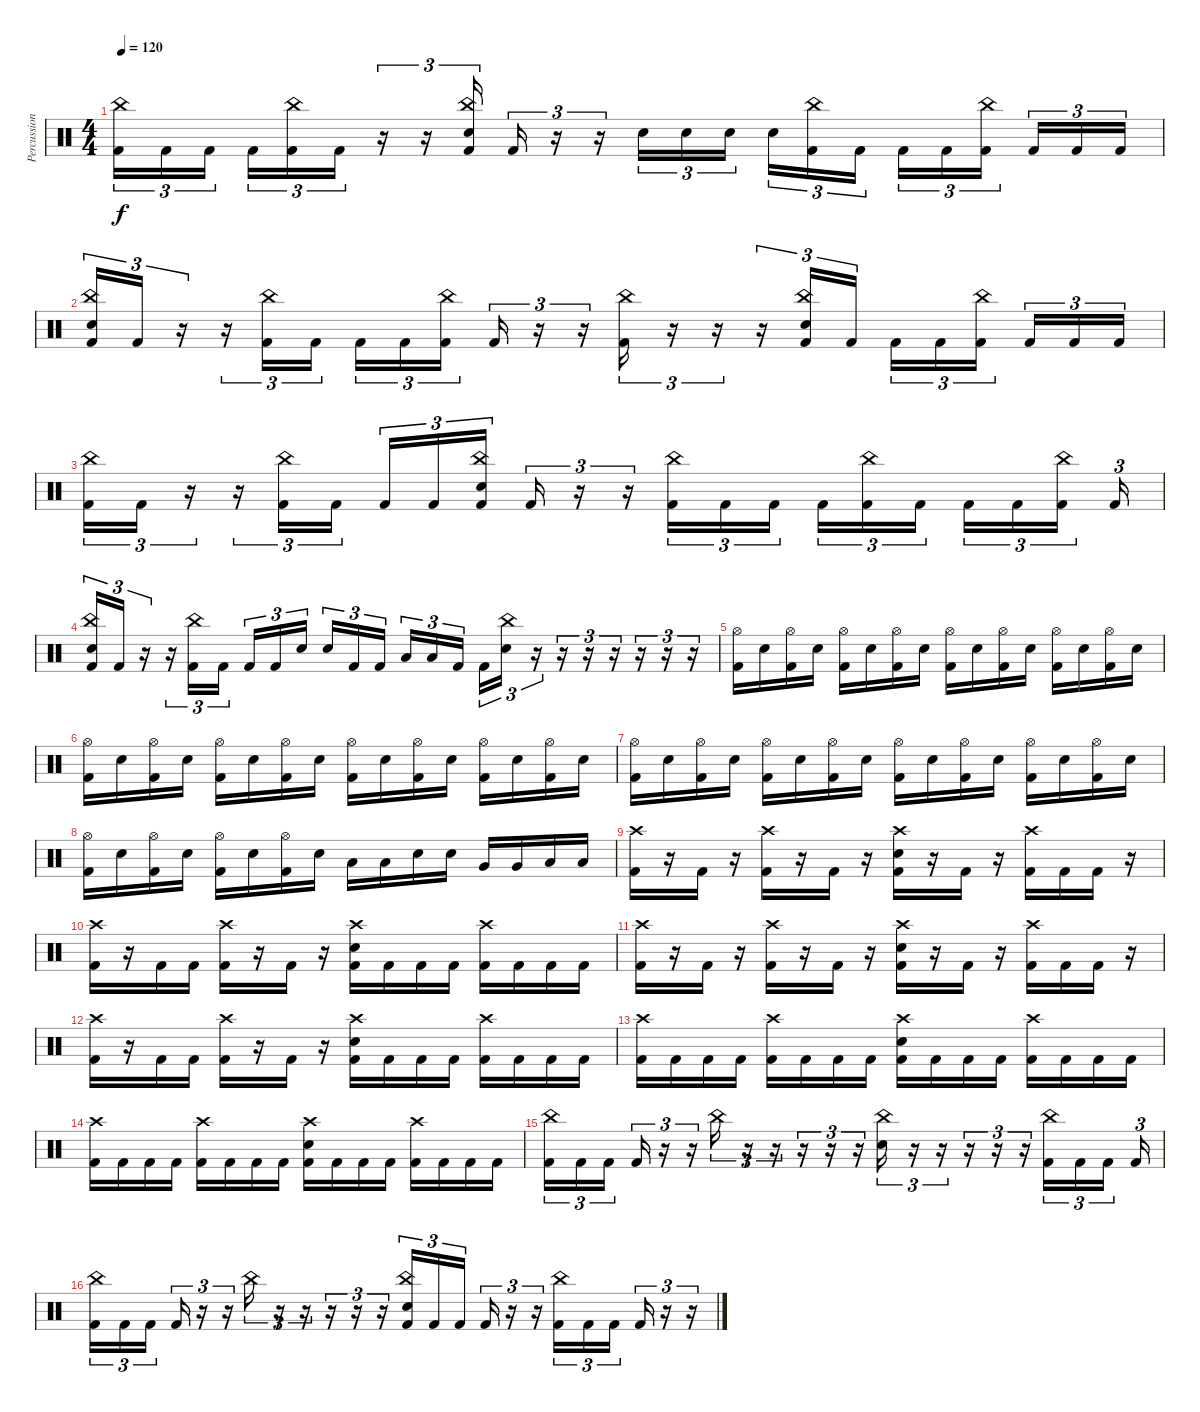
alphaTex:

\track ("Percussion" "Percussion") {instrument percussion}
\staff {score}
\articulation defaults
\ts (4 4)
\tempo 120
\clef neutral
\ks c
("Kick (hit) 2" "China (hit)").16{tu (3 2) dy f} "Kick (hit) 2".16{tu (3 2)} "Kick (hit) 2".16{tu (3 2)} "Kick (hit) 2".16{tu (3 2)} ("Kick (hit) 2" "China (hit)").16{tu (3 2)} "Kick (hit) 2".16{tu (3 2)} r.16{tu (3 2)} r.16{tu (3 2)} ("Kick (hit) 2" "Electric Snare (hit)" "China (hit)").16{tu (3 2)} "Kick (hit) 2".16{tu (3 2)} r.16{tu (3 2)} r.16{tu (3 2)} "Electric Snare (hit)".16{tu (3 2)} "Electric Snare (hit)".16{tu (3 2)} "Electric Snare (hit)".16{tu (3 2)} "Electric Snare (hit)".16{tu (3 2)} ("Kick (hit) 2" "China (hit)").16{tu (3 2)} "Kick (hit) 2".16{tu (3 2)} "Kick (hit) 2".16{tu (3 2)} "Kick (hit) 2".16{tu (3 2)} ("Kick (hit) 2" "China (hit)").16{tu (3 2)} "Kick (hit) 2".16{tu (3 2)} "Kick (hit) 2".16{tu (3 2)} "Kick (hit) 2".16{tu (3 2)} |
("Kick (hit) 2" "Electric Snare (hit)" "China (hit)").16{tu (3 2)} "Kick (hit) 2".16{tu (3 2)} r.16{tu (3 2)} r.16{tu (3 2)} ("Kick (hit) 2" "China (hit)").16{tu (3 2)} "Kick (hit) 2".16{tu (3 2)} "Kick (hit) 2".16{tu (3 2)} "Kick (hit) 2".16{tu (3 2)} ("Kick (hit) 2" "China (hit)").16{tu (3 2)} "Kick (hit) 2".16{tu (3 2)} r.16{tu (3 2)} r.16{tu (3 2)} ("Kick (hit) 2" "China (hit)").16{tu (3 2)} r.16{tu (3 2)} r.16{tu (3 2)} r.16{tu (3 2)} ("Kick (hit) 2" "Electric Snare (hit)" "China (hit)").16{tu (3 2)} "Kick (hit) 2".16{tu (3 2)} "Kick (hit) 2".16{tu (3 2)} "Kick (hit) 2".16{tu (3 2)} ("Kick (hit) 2" "China (hit)").16{tu (3 2)} "Kick (hit) 2".16{tu (3 2)} "Kick (hit) 2".16{tu (3 2)} "Kick (hit) 2".16{tu (3 2)} |
("Kick (hit) 2" "China (hit)").16{tu (3 2)} "Kick (hit) 2".16{tu (3 2)} r.16{tu (3 2)} r.16{tu (3 2)} ("Kick (hit) 2" "China (hit)").16{tu (3 2)} "Kick (hit) 2".16{tu (3 2)} "Kick (hit) 2".16{tu (3 2)} "Kick (hit) 2".16{tu (3 2)} ("Kick (hit) 2" "Electric Snare (hit)" "China (hit)").16{tu (3 2)} "Kick (hit) 2".16{tu (3 2)} r.16{tu (3 2)} r.16{tu (3 2)} ("Kick (hit) 2" "China (hit)").16{tu (3 2)} "Kick (hit) 2".16{tu (3 2)} "Kick (hit) 2".16{tu (3 2)} "Kick (hit) 2".16{tu (3 2)} ("Kick (hit) 2" "China (hit)").16{tu (3 2)} "Kick (hit) 2".16{tu (3 2)} "Kick (hit) 2".16{tu (3 2)} "Kick (hit) 2".16{tu (3 2)} ("Kick (hit) 2" "China (hit)").16{tu (3 2)} "Kick (hit) 2".16{tu (3 2)} |
("Kick (hit) 2" "Electric Snare (hit)" "China (hit)").16{tu (3 2)} "Kick (hit) 2".16{tu (3 2)} r.16{tu (3 2)} r.16{tu (3 2)} ("Kick (hit) 2" "China (hit)").16{tu (3 2)} "Kick (hit) 2".16{tu (3 2)} "Kick (hit) 2".16{tu (3 2)} "Kick (hit) 2".16{tu (3 2)} "Electric Snare (hit)".16{tu (3 2)} "Electric Snare (hit)".16{tu (3 2)} "Kick (hit) 2".16{tu (3 2)} "Kick (hit) 2".16{tu (3 2)} "Low Tom (hit)".16{tu (3 2)} "Low Tom (hit)".16{tu (3 2)} "Kick (hit) 2".16{tu (3 2)} "Kick (hit) 2".16{tu (3 2)} ("Electric Snare (hit)" "China (hit)").16{tu (3 2)} r.16{tu (3 2)} r.16{tu (3 2)} r.16{tu (3 2)} r.16{tu (3 2)} r.16{tu (3 2)} r.16{tu (3 2)} r.16{tu (3 2)} |
("Kick (hit) 2" "Hi-Hat (open)").16 "Electric Snare (hit)".16 ("Kick (hit) 2" "Hi-Hat (open)").16 "Electric Snare (hit)".16 ("Kick (hit) 2" "Hi-Hat (open)").16 "Electric Snare (hit)".16 ("Kick (hit) 2" "Hi-Hat (open)").16 "Electric Snare (hit)".16 ("Kick (hit) 2" "Hi-Hat (open)").16 "Electric Snare (hit)".16 ("Kick (hit) 2" "Hi-Hat (open)").16 "Electric Snare (hit)".16 ("Kick (hit) 2" "Hi-Hat (open)").16 "Electric Snare (hit)".16 ("Kick (hit) 2" "Hi-Hat (open)").16 "Electric Snare (hit)".16 |
("Kick (hit) 2" "Hi-Hat (open)").16 "Electric Snare (hit)".16 ("Kick (hit) 2" "Hi-Hat (open)").16 "Electric Snare (hit)".16 ("Kick (hit) 2" "Hi-Hat (open)").16 "Electric Snare (hit)".16 ("Kick (hit) 2" "Hi-Hat (open)").16 "Electric Snare (hit)".16 ("Kick (hit) 2" "Hi-Hat (open)").16 "Electric Snare (hit)".16 ("Kick (hit) 2" "Hi-Hat (open)").16 "Electric Snare (hit)".16 ("Kick (hit) 2" "Hi-Hat (open)").16 "Electric Snare (hit)".16 ("Kick (hit) 2" "Hi-Hat (open)").16 "Electric Snare (hit)".16 |
("Kick (hit) 2" "Hi-Hat (open)").16 "Electric Snare (hit)".16 ("Kick (hit) 2" "Hi-Hat (open)").16 "Electric Snare (hit)".16 ("Kick (hit) 2" "Hi-Hat (open)").16 "Electric Snare (hit)".16 ("Kick (hit) 2" "Hi-Hat (open)").16 "Electric Snare (hit)".16 ("Kick (hit) 2" "Hi-Hat (open)").16 "Electric Snare (hit)".16 ("Kick (hit) 2" "Hi-Hat (open)").16 "Electric Snare (hit)".16 ("Kick (hit) 2" "Hi-Hat (open)").16 "Electric Snare (hit)".16 ("Kick (hit) 2" "Hi-Hat (open)").16 "Electric Snare (hit)".16 |
("Kick (hit) 2" "Hi-Hat (open)").16 "Electric Snare (hit)".16 ("Kick (hit) 2" "Hi-Hat (open)").16 "Electric Snare (hit)".16 ("Kick (hit) 2" "Hi-Hat (open)").16 "Electric Snare (hit)".16 ("Kick (hit) 2" "Hi-Hat (open)").16 "Electric Snare (hit)".16 "Low Tom (hit)".16 "Low Tom (hit)".16 "Electric Snare (hit)".16 "Electric Snare (hit)".16 "Very Low Tom (hit)".16 "Very Low Tom (hit)".16 "Low Floor Tom (hit)".16 "Low Floor Tom (hit)".16 |
("Kick (hit) 2" "Crash high (hit)").16 r.16 "Kick (hit) 2".16 r.16 ("Kick (hit) 2" "Crash high (hit)").16 r.16 "Kick (hit) 2".16 r.16 ("Kick (hit) 2" "Electric Snare (hit)" "Crash high (hit)").16 r.16 "Kick (hit) 2".16 r.16 ("Kick (hit) 2" "Crash high (hit)").16 "Kick (hit) 2".16 "Kick (hit) 2".16 r.16 |
("Kick (hit) 2" "Crash high (hit)").16 r.16 "Kick (hit) 2".16 "Kick (hit) 2".16 ("Kick (hit) 2" "Crash high (hit)").16 r.16 "Kick (hit) 2".16 r.16 ("Kick (hit) 2" "Electric Snare (hit)" "Crash high (hit)").16 "Kick (hit) 2".16 "Kick (hit) 2".16 "Kick (hit) 2".16 ("Kick (hit) 2" "Crash high (hit)").16 "Kick (hit) 2".16 "Kick (hit) 2".16 "Kick (hit) 2".16 |
("Kick (hit) 2" "Crash high (hit)").16 r.16 "Kick (hit) 2".16 r.16 ("Kick (hit) 2" "Crash high (hit)").16 r.16 "Kick (hit) 2".16 r.16 ("Kick (hit) 2" "Electric Snare (hit)" "Crash high (hit)").16 r.16 "Kick (hit) 2".16 r.16 ("Kick (hit) 2" "Crash high (hit)").16 "Kick (hit) 2".16 "Kick (hit) 2".16 r.16 |
("Kick (hit) 2" "Crash high (hit)").16 r.16 "Kick (hit) 2".16 "Kick (hit) 2".16 ("Kick (hit) 2" "Crash high (hit)").16 r.16 "Kick (hit) 2".16 r.16 ("Kick (hit) 2" "Electric Snare (hit)" "Crash high (hit)").16 "Kick (hit) 2".16 "Kick (hit) 2".16 "Kick (hit) 2".16 ("Kick (hit) 2" "Crash high (hit)").16 "Kick (hit) 2".16 "Kick (hit) 2".16 "Kick (hit) 2".16 |
("Kick (hit) 2" "Crash high (hit)").16 "Kick (hit) 2".16 "Kick (hit) 2".16 "Kick (hit) 2".16 ("Kick (hit) 2" "Crash high (hit)").16 "Kick (hit) 2".16 "Kick (hit) 2".16 "Kick (hit) 2".16 ("Kick (hit) 2" "Crash high (hit)" "Electric Snare (hit)").16 "Kick (hit) 2".16 "Kick (hit) 2".16 "Kick (hit) 2".16 ("Kick (hit) 2" "Crash high (hit)").16 "Kick (hit) 2".16 "Kick (hit) 2".16 "Kick (hit) 2".16 |
("Kick (hit) 2" "Crash high (hit)").16 "Kick (hit) 2".16 "Kick (hit) 2".16 "Kick (hit) 2".16 ("Kick (hit) 2" "Crash high (hit)").16 "Kick (hit) 2".16 "Kick (hit) 2".16 "Kick (hit) 2".16 ("Kick (hit) 2" "Crash high (hit)" "Electric Snare (hit)").16 "Kick (hit) 2".16 "Kick (hit) 2".16 "Kick (hit) 2".16 ("Kick (hit) 2" "Crash high (hit)").16 "Kick (hit) 2".16 "Kick (hit) 2".16 "Kick (hit) 2".16 |
("Kick (hit) 2" "China (hit)").16{tu (3 2)} "Kick (hit) 2".16{tu (3 2)} "Kick (hit) 2".16{tu (3 2)} "Kick (hit) 2".16{tu (3 2)} r.16{tu (3 2)} r.16{tu (3 2)} "China (hit)".16{tu (3 2)} r.16{tu (3 2)} r.16{tu (3 2)} r.16{tu (3 2)} r.16{tu (3 2)} r.16{tu (3 2)} ("Electric Snare (hit)" "China (hit)").16{tu (3 2)} r.16{tu (3 2)} r.16{tu (3 2)} r.16{tu (3 2)} r.16{tu (3 2)} r.16{tu (3 2)} ("Kick (hit) 2" "China (hit)").16{tu (3 2)} "Kick (hit) 2".16{tu (3 2)} "Kick (hit) 2".16{tu (3 2)} "Kick (hit) 2".16{tu (3 2)} |
("Kick (hit) 2" "China (hit)").16{tu (3 2)} "Kick (hit) 2".16{tu (3 2)} "Kick (hit) 2".16{tu (3 2)} "Kick (hit) 2".16{tu (3 2)} r.16{tu (3 2)} r.16{tu (3 2)} "China (hit)".16{tu (3 2)} r.16{tu (3 2)} r.16{tu (3 2)} r.16{tu (3 2)} r.16{tu (3 2)} r.16{tu (3 2)} ("Kick (hit) 2" "China (hit)" "Electric Snare (hit)").16{tu (3 2)} "Kick (hit) 2".16{tu (3 2)} "Kick (hit) 2".16{tu (3 2)} "Kick (hit) 2".16{tu (3 2)} r.16{tu (3 2)} r.16{tu (3 2)} ("Kick (hit) 2" "China (hit)").16{tu (3 2)} "Kick (hit) 2".16{tu (3 2)} "Kick (hit) 2".16{tu (3 2)} "Kick (hit) 2".16{tu (3 2)} r.16{tu (3 2)} r.16{tu (3 2)}
